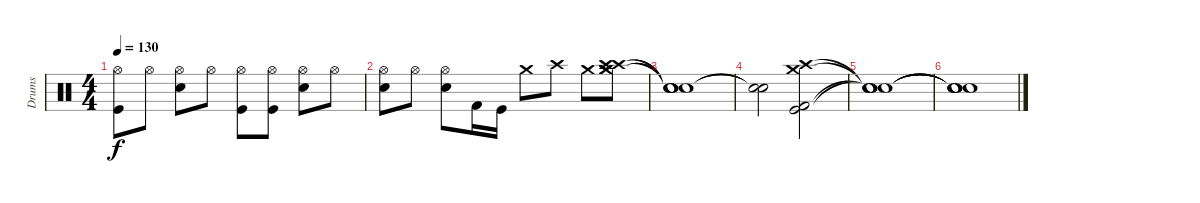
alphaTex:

\track ("Drums" "Drums") {instrument percussion}
\staff {score}
\articulation defaults
\ts (4 4)
\tempo 130
\clef neutral
\ks c
("Kick (hit)" "Hi-Hat (open)").8{dy f} "Hi-Hat (open)".8 ("Electric Snare (hit)" "Hi-Hat (open)").8 "Hi-Hat (open)".8 ("Kick (hit)" "Hi-Hat (open)").8 ("Kick (hit)" "Hi-Hat (open)").8 ("Electric Snare (hit)" "Hi-Hat (open)").8 "Hi-Hat (open)".8 |
("Electric Snare (hit)" "Hi-Hat (open)").8 "Hi-Hat (open)".8 ("Electric Snare (hit)" "Hi-Hat (open)").8 "Kick (hit) 2".16 "Kick (hit)".16 "Crash medium (hit)".8 "Crash high (hit)".8 "Crash medium (hit)".8 ("Crash high (hit)" "Crash medium (hit)" "Crash medium (hit)" "Crash high (hit)").8 |
("Snare (hit)"{t} "Snare (hit)"{t} "Snare (hit)"{t} "Snare (hit)"{t}).1 |
("Snare (hit)"{t} "Snare (hit)"{t}).2 ("Crash high (hit)" "Crash medium (hit)" "Kick (hit)" "Kick (hit) 2").2 |
("Snare (hit)"{t} "Snare (hit)"{t} "Snare (hit)"{t} "Snare (hit)"{t}).1 |
("Snare (hit)"{t} "Snare (hit)"{t} "Snare (hit)"{t} "Snare (hit)"{t}).1
